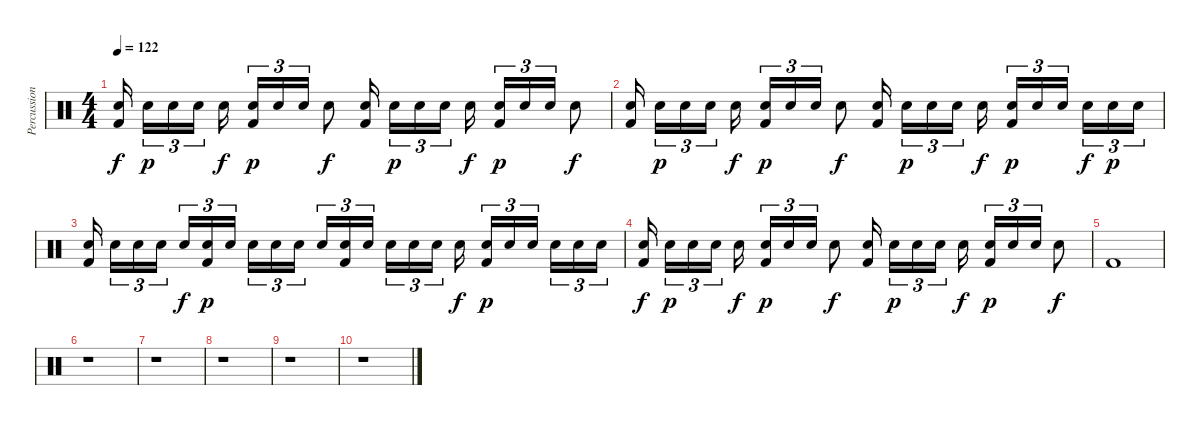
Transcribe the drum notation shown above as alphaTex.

\track ("Percussions" "Percussion") {instrument percussion}
\staff {score}
\articulation defaults
\ts (4 4)
\tempo 122
\clef neutral
\ks c
("Kick (hit) 2" "Snare (hit) 2").16{dy f} "Snare (hit) 2".16{tu (3 2) dy p} "Snare (hit) 2".16{tu (3 2)} "Snare (hit) 2".16{tu (3 2)} "Snare (hit) 2".16{dy f} ("Kick (hit) 2" "Snare (hit) 2").16{tu (3 2) dy p} "Snare (hit) 2".16{tu (3 2)} "Snare (hit) 2".16{tu (3 2)} "Snare (hit) 2".8{dy f} ("Kick (hit) 2" "Snare (hit) 2").16 "Snare (hit) 2".16{tu (3 2) dy p} "Snare (hit) 2".16{tu (3 2)} "Snare (hit) 2".16{tu (3 2)} "Snare (hit) 2".16{dy f} ("Kick (hit) 2" "Snare (hit) 2").16{tu (3 2) dy p} "Snare (hit) 2".16{tu (3 2)} "Snare (hit) 2".16{tu (3 2)} "Snare (hit) 2".8{dy f} |
("Kick (hit) 2" "Snare (hit) 2").16 "Snare (hit) 2".16{tu (3 2) dy p} "Snare (hit) 2".16{tu (3 2)} "Snare (hit) 2".16{tu (3 2)} "Snare (hit) 2".16{dy f} ("Kick (hit) 2" "Snare (hit) 2").16{tu (3 2) dy p} "Snare (hit) 2".16{tu (3 2)} "Snare (hit) 2".16{tu (3 2)} "Snare (hit) 2".8{dy f} ("Kick (hit) 2" "Snare (hit) 2").16 "Snare (hit) 2".16{tu (3 2) dy p} "Snare (hit) 2".16{tu (3 2)} "Snare (hit) 2".16{tu (3 2)} "Snare (hit) 2".16{dy f} ("Kick (hit) 2" "Snare (hit) 2").16{tu (3 2) dy p} "Snare (hit) 2".16{tu (3 2)} "Snare (hit) 2".16{tu (3 2)} "Snare (hit) 2".16{tu (3 2) dy f} "Snare (hit) 2".16{tu (3 2) dy p} "Snare (hit) 2".16{tu (3 2)} |
("Kick (hit) 2" "Snare (hit) 2").16 "Snare (hit) 2".16{tu (3 2)} "Snare (hit) 2".16{tu (3 2)} "Snare (hit) 2".16{tu (3 2)} "Snare (hit) 2".16{tu (3 2) dy f} ("Kick (hit) 2" "Snare (hit) 2").16{tu (3 2) dy p} "Snare (hit) 2".16{tu (3 2)} "Snare (hit) 2".16{tu (3 2)} "Snare (hit) 2".16{tu (3 2)} "Snare (hit) 2".16{tu (3 2)} "Snare (hit) 2".16{tu (3 2)} ("Kick (hit) 2" "Snare (hit) 2").16{tu (3 2)} "Snare (hit) 2".16{tu (3 2)} "Snare (hit) 2".16{tu (3 2)} "Snare (hit) 2".16{tu (3 2)} "Snare (hit) 2".16{tu (3 2)} "Snare (hit) 2".16{dy f} ("Kick (hit) 2" "Snare (hit) 2").16{tu (3 2) dy p} "Snare (hit) 2".16{tu (3 2)} "Snare (hit) 2".16{tu (3 2)} "Snare (hit) 2".16{tu (3 2)} "Snare (hit) 2".16{tu (3 2)} "Snare (hit) 2".16{tu (3 2)} |
("Kick (hit) 2" "Snare (hit) 2").16{dy f} "Snare (hit) 2".16{tu (3 2) dy p} "Snare (hit) 2".16{tu (3 2)} "Snare (hit) 2".16{tu (3 2)} "Snare (hit) 2".16{dy f} ("Kick (hit) 2" "Snare (hit) 2").16{tu (3 2) dy p} "Snare (hit) 2".16{tu (3 2)} "Snare (hit) 2".16{tu (3 2)} "Snare (hit) 2".8{dy f} ("Kick (hit) 2" "Snare (hit) 2").16 "Snare (hit) 2".16{tu (3 2) dy p} "Snare (hit) 2".16{tu (3 2)} "Snare (hit) 2".16{tu (3 2)} "Snare (hit) 2".16{dy f} ("Kick (hit) 2" "Snare (hit) 2").16{tu (3 2) dy p} "Snare (hit) 2".16{tu (3 2)} "Snare (hit) 2".16{tu (3 2)} "Snare (hit) 2".8{dy f} |
"Kick (hit) 2".1 |
r.1 |
r.1 |
r.1 |
r.1 |
r.1
